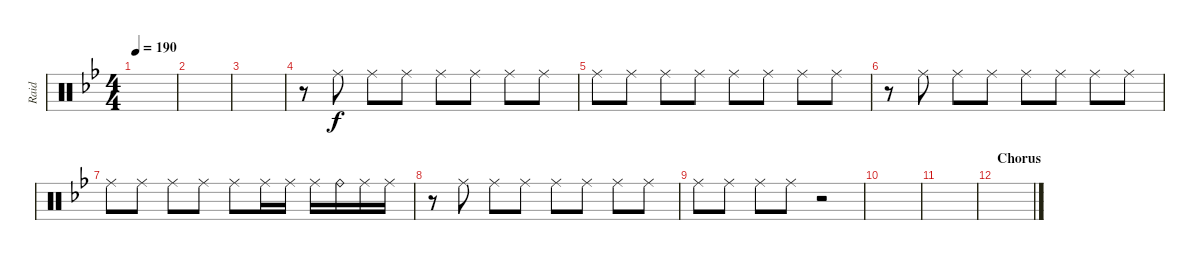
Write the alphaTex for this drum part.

\track ("Raid" "Raid") {instrument percussion}
\staff {score}
\articulation defaults
\ts (4 4)
\tempo 190
\clef neutral
\ks bb
|
|
|
r.8 "Ride (middle)".8 "Ride (middle)".8 "Ride (middle)".8 "Ride (middle)".8 "Ride (middle)".8 "Ride (middle)".8 "Ride (middle)".8 |
"Ride (middle)".8 "Ride (middle)".8 "Ride (middle)".8 "Ride (middle)".8 "Ride (middle)".8 "Ride (middle)".8 "Ride (middle)".8 "Ride (middle)".8 |
r.8 "Ride (middle)".8 "Ride (middle)".8 "Ride (middle)".8 "Ride (middle)".8 "Ride (middle)".8 "Ride (middle)".8 "Ride (middle)".8 |
"Ride (middle)".8 "Ride (middle)".8 "Ride (middle)".8 "Ride (middle)".8 "Ride (middle)".8 "Ride (middle)".16 "Ride (middle)".16 "Ride (middle)".16 "Ride (bell)".16 "Ride (middle)".16 "Ride (middle)".16 |
r.8 "Ride (middle)".8 "Ride (middle)".8 "Ride (middle)".8 "Ride (middle)".8 "Ride (middle)".8 "Ride (middle)".8 "Ride (middle)".8 |
"Ride (middle)".8 "Ride (middle)".8 "Ride (middle)".8 "Ride (middle)".8 r.2 |
|
|
\section ("" "Chorus")
